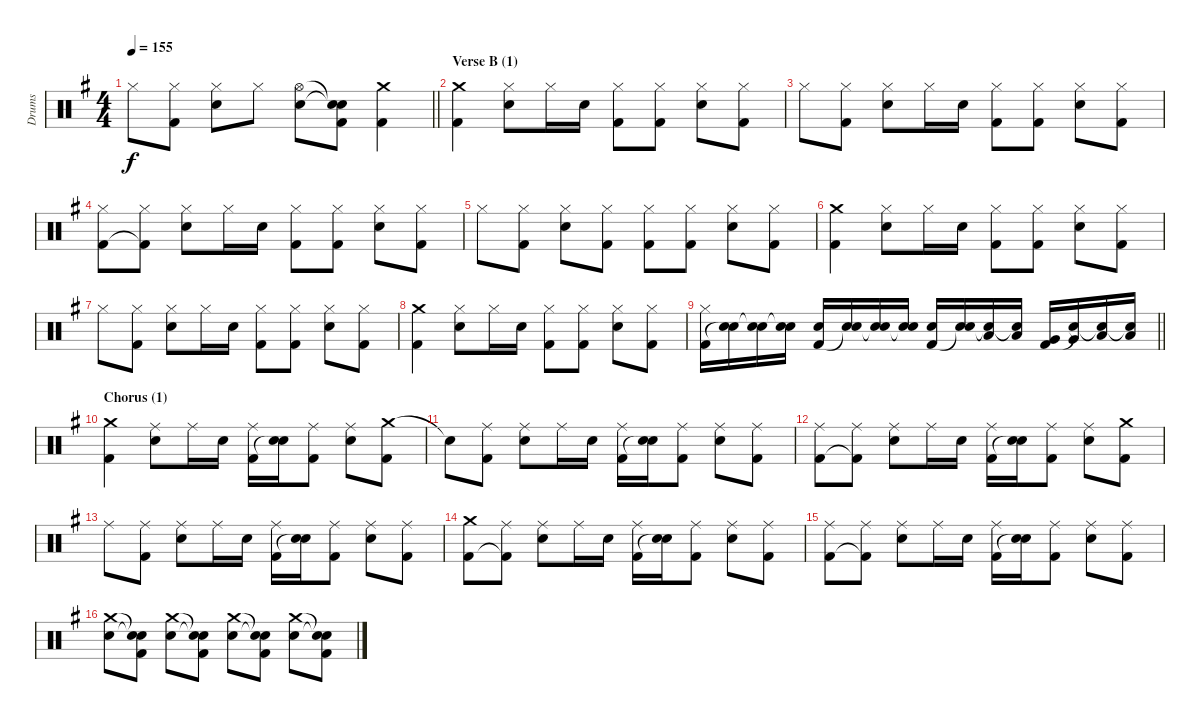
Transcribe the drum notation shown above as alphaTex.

\track ("Drums" "Drums") {instrument percussion}
\staff {score}
\articulation defaults
\ts (4 4)
\tempo 155
\clef neutral
\barLineRight lightlight
\ks eminor "Hi-Hat (closed)".8{dy f}
("Hi-Hat (closed)" "Kick (hit) 2").8 ("Hi-Hat (closed)" "Electric Snare (hit)").8 "Hi-Hat (closed)".8 ("Hi-Hat (open)" "Electric Snare (hit)").8 ("Snare (hit)"{t} "Snare (hit)"{t} "Kick (hit) 2").8 ("Crash medium (hit)" "Kick (hit) 2").4 |
\section ("" "Verse B (1)")
("Crash medium (hit)" "Kick (hit) 2").4 ("Hi-Hat (closed)" "Electric Snare (hit)").8 "Hi-Hat (closed)".16 "Electric Snare (hit)".16 ("Hi-Hat (closed)" "Kick (hit) 2").8 ("Hi-Hat (closed)" "Kick (hit) 2").8 ("Hi-Hat (closed)" "Electric Snare (hit)").8 ("Hi-Hat (closed)" "Kick (hit) 2").8 |
"Hi-Hat (closed)".8 ("Hi-Hat (closed)" "Kick (hit) 2").8 ("Hi-Hat (closed)" "Electric Snare (hit)").8 "Hi-Hat (closed)".16 "Electric Snare (hit)".16 ("Hi-Hat (closed)" "Kick (hit) 2").8 ("Hi-Hat (closed)" "Kick (hit) 2").8 ("Hi-Hat (closed)" "Electric Snare (hit)").8 ("Hi-Hat (closed)" "Kick (hit) 2").8 |
("Hi-Hat (closed)" "Kick (hit) 2").8 ("Hi-Hat (closed)" "Kick (hit) 2"{t}).8 ("Hi-Hat (closed)" "Electric Snare (hit)").8 "Hi-Hat (closed)".16 "Electric Snare (hit)".16 ("Hi-Hat (closed)" "Kick (hit) 2").8 ("Hi-Hat (closed)" "Kick (hit) 2").8 ("Hi-Hat (closed)" "Electric Snare (hit)").8 ("Hi-Hat (closed)" "Kick (hit) 2").8 |
"Hi-Hat (closed)".8 ("Hi-Hat (closed)" "Kick (hit) 2").8 ("Hi-Hat (closed)" "Electric Snare (hit)").8 ("Hi-Hat (closed)" "Kick (hit) 2").8 ("Hi-Hat (closed)" "Kick (hit) 2").8 ("Hi-Hat (closed)" "Kick (hit) 2").8 ("Hi-Hat (closed)" "Electric Snare (hit)").8 ("Hi-Hat (closed)" "Kick (hit) 2").8 |
("Crash medium (hit)" "Kick (hit) 2").4 ("Hi-Hat (closed)" "Electric Snare (hit)").8 "Hi-Hat (closed)".16 "Electric Snare (hit)".16 ("Hi-Hat (closed)" "Kick (hit) 2").8 ("Hi-Hat (closed)" "Kick (hit) 2").8 ("Hi-Hat (closed)" "Electric Snare (hit)").8 ("Hi-Hat (closed)" "Kick (hit) 2").8 |
"Hi-Hat (closed)".8 ("Hi-Hat (closed)" "Kick (hit) 2").8 ("Hi-Hat (closed)" "Electric Snare (hit)").8 "Hi-Hat (closed)".16 "Electric Snare (hit)".16 ("Hi-Hat (closed)" "Kick (hit) 2").8 ("Hi-Hat (closed)" "Kick (hit) 2").8 ("Hi-Hat (closed)" "Electric Snare (hit)").8 ("Hi-Hat (closed)" "Kick (hit) 2").8 |
("Crash medium (hit)" "Kick (hit) 2").4 ("Hi-Hat (closed)" "Electric Snare (hit)").8 "Hi-Hat (closed)".16 "Electric Snare (hit)".16 ("Hi-Hat (closed)" "Kick (hit) 2").8 ("Hi-Hat (closed)" "Kick (hit) 2").8 ("Hi-Hat (closed)" "Electric Snare (hit)").8 ("Hi-Hat (closed)" "Kick (hit) 2").8 |
\barLineRight lightlight
("Hi-Hat (closed)" "Kick (hit) 2").16 ("Electric Snare (hit)" "Snare (hit)"{t}).16 ("Electric Snare (hit)" "Snare (hit)"{t}).16 ("Electric Snare (hit)" "Snare (hit)"{t}).16 ("Electric Snare (hit)" "Kick (hit) 2").16 ("Electric Snare (hit)" "Snare (hit)"{t}).16 ("Electric Snare (hit)" "Snare (hit)"{t}).16 ("Electric Snare (hit)" "Snare (hit)"{t}).16 ("Electric Snare (hit)" "Kick (hit) 2").16 ("Electric Snare (hit)" "Snare (hit)"{t}).16 ("Low Tom (hit)" "Snare (hit)"{t}).16 ("Low Tom (hit)" "Snare (hit)"{t}).16 ("Very Low Tom (hit)" "Kick (hit) 2").16 ("Very Low Tom (hit)" "Snare (hit)"{t}).16 ("Low Floor Tom (hit)" "Snare (hit)"{t}).16 ("Low Floor Tom (hit)" "Snare (hit)"{t}).16 |
\section ("" "Chorus (1)")
("Crash medium (hit)" "Kick (hit) 2").4 ("Ride (middle)" "Electric Snare (hit)").8 "Ride (middle)".16 "Electric Snare (hit)".16 ("Ride (middle)" "Kick (hit) 2").16 ("Electric Snare (hit)" "Snare (hit)"{t}).16 ("Ride (middle)" "Kick (hit) 2").8 ("Ride (middle)" "Electric Snare (hit)").8 ("Crash medium (hit)" "Kick (hit) 2").8 |
"Snare (hit)"{t}.8 ("Ride (middle)" "Kick (hit) 2").8 ("Ride (middle)" "Electric Snare (hit)").8 "Ride (middle)".16 "Electric Snare (hit)".16 ("Ride (middle)" "Kick (hit) 2").16 ("Electric Snare (hit)" "Snare (hit)"{t}).16 ("Ride (middle)" "Kick (hit) 2").8 ("Ride (middle)" "Electric Snare (hit)").8 ("Ride (middle)" "Kick (hit) 2").8 |
("Ride (middle)" "Kick (hit) 2").8 ("Ride (middle)" "Kick (hit) 2"{t}).8 ("Ride (middle)" "Electric Snare (hit)").8 "Ride (middle)".16 "Electric Snare (hit)".16 ("Ride (middle)" "Kick (hit) 2").16 ("Electric Snare (hit)" "Snare (hit)"{t}).16 ("Ride (middle)" "Kick (hit) 2").8 ("Ride (middle)" "Electric Snare (hit)").8 ("Crash medium (hit)" "Kick (hit) 2").8 |
"Ride (middle)".8 ("Ride (middle)" "Kick (hit) 2").8 ("Ride (middle)" "Electric Snare (hit)").8 "Ride (middle)".16 "Electric Snare (hit)".16 ("Ride (middle)" "Kick (hit) 2").16 ("Electric Snare (hit)" "Snare (hit)"{t}).16 ("Ride (middle)" "Kick (hit) 2").8 ("Ride (middle)" "Electric Snare (hit)").8 ("Ride (middle)" "Kick (hit) 2").8 |
("Crash medium (hit)" "Kick (hit) 2").8 ("Ride (middle)" "Kick (hit) 2"{t}).8 ("Ride (middle)" "Electric Snare (hit)").8 "Ride (middle)".16 "Electric Snare (hit)".16 ("Ride (middle)" "Kick (hit) 2").16 ("Electric Snare (hit)" "Snare (hit)"{t}).16 ("Ride (middle)" "Kick (hit) 2").8 ("Ride (middle)" "Electric Snare (hit)").8 ("Ride (middle)" "Kick (hit) 2").8 |
("Ride (middle)" "Kick (hit) 2").8 ("Ride (middle)" "Kick (hit) 2"{t}).8 ("Ride (middle)" "Electric Snare (hit)").8 "Ride (middle)".16 "Electric Snare (hit)".16 ("Ride (middle)" "Kick (hit) 2").16 ("Electric Snare (hit)" "Snare (hit)"{t}).16 ("Ride (middle)" "Kick (hit) 2").8 ("Ride (middle)" "Electric Snare (hit)").8 ("Ride (middle)" "Kick (hit) 2").8 |
("Crash medium (hit)" "Electric Snare (hit)").8 ("Snare (hit)"{t} "Snare (hit)"{t} "Kick (hit) 2").8 ("Crash medium (hit)" "Electric Snare (hit)").8 ("Snare (hit)"{t} "Snare (hit)"{t} "Kick (hit) 2").8 ("Crash medium (hit)" "Electric Snare (hit)").8 ("Snare (hit)"{t} "Snare (hit)"{t} "Kick (hit) 2").8 ("Crash medium (hit)" "Electric Snare (hit)").8 ("Snare (hit)"{t} "Snare (hit)"{t} "Kick (hit) 2").8
